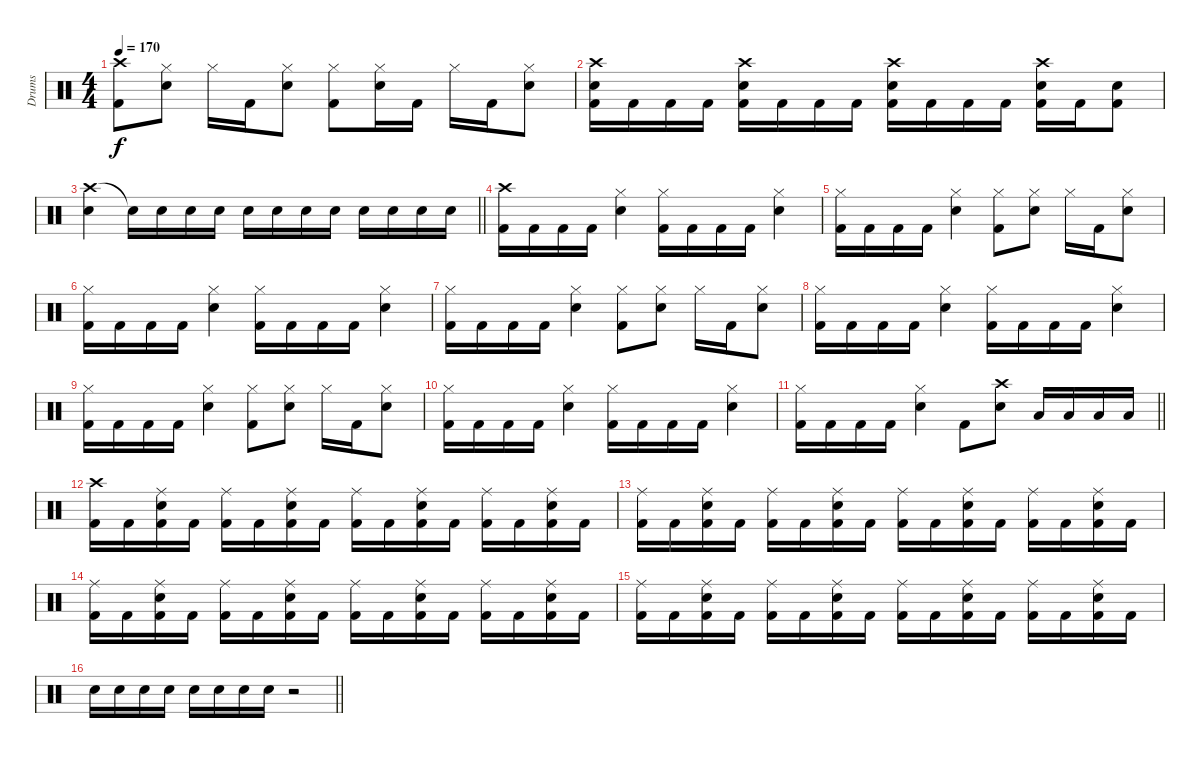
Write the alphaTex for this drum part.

\track ("Drums" "Drums") {instrument percussion}
\staff {score}
\articulation defaults
\ts (4 4)
\tempo 170
\clef neutral
\ks c
("Crash high (hit)" "Kick (hit) 2").8{dy f} ("Hi-Hat (closed)" "Snare (hit) 2").8 "Hi-Hat (closed)".16 "Kick (hit) 2".16 ("Hi-Hat (closed)" "Snare (hit) 2").8 ("Hi-Hat (closed)" "Kick (hit) 2").8 ("Hi-Hat (closed)" "Snare (hit) 2").16 "Kick (hit) 2".16 "Hi-Hat (closed)".16 "Kick (hit) 2".16 ("Hi-Hat (closed)" "Snare (hit) 2").8 |
("Crash high (hit)" "Snare (hit) 2" "Kick (hit) 2").16 "Kick (hit) 2".16 "Kick (hit) 2".16 "Kick (hit) 2".16 ("Crash high (hit)" "Snare (hit) 2" "Kick (hit) 2").16 "Kick (hit) 2".16 "Kick (hit) 2".16 "Kick (hit) 2".16 ("Crash high (hit)" "Snare (hit) 2" "Kick (hit) 2").16 "Kick (hit) 2".16 "Kick (hit) 2".16 "Kick (hit) 2".16 ("Crash high (hit)" "Snare (hit) 2" "Kick (hit) 2").16 "Kick (hit) 2".16 ("Snare (hit) 2" "Kick (hit) 2").8 |
\barLineRight lightlight
("Crash high (hit)" "Snare (hit) 2").4 "Snare (hit)"{t}.16 "Snare (hit) 2".16 "Snare (hit) 2".16 "Snare (hit) 2".16 "Snare (hit) 2".16 "Snare (hit) 2".16 "Snare (hit) 2".16 "Snare (hit) 2".16 "Snare (hit) 2".16 "Snare (hit) 2".16 "Snare (hit) 2".16 "Snare (hit) 2".16 |
("Crash high (hit)" "Kick (hit) 2").16 "Kick (hit) 2".16 "Kick (hit) 2".16 "Kick (hit) 2".16 ("Hi-Hat (closed)" "Snare (hit) 2").4 ("Hi-Hat (closed)" "Kick (hit) 2").16 "Kick (hit) 2".16 "Kick (hit) 2".16 "Kick (hit) 2".16 ("Hi-Hat (closed)" "Snare (hit) 2").4 |
("Hi-Hat (closed)" "Kick (hit) 2").16 "Kick (hit) 2".16 "Kick (hit) 2".16 "Kick (hit) 2".16 ("Hi-Hat (closed)" "Snare (hit) 2").4 ("Hi-Hat (closed)" "Kick (hit) 2").8 ("Hi-Hat (closed)" "Snare (hit) 2").8 "Hi-Hat (closed)".16 "Kick (hit) 2".16 ("Hi-Hat (closed)" "Snare (hit) 2").8 |
("Hi-Hat (closed)" "Kick (hit) 2").16 "Kick (hit) 2".16 "Kick (hit) 2".16 "Kick (hit) 2".16 ("Hi-Hat (closed)" "Snare (hit) 2").4 ("Hi-Hat (closed)" "Kick (hit) 2").16 "Kick (hit) 2".16 "Kick (hit) 2".16 "Kick (hit) 2".16 ("Hi-Hat (closed)" "Snare (hit) 2").4 |
("Hi-Hat (closed)" "Kick (hit) 2").16 "Kick (hit) 2".16 "Kick (hit) 2".16 "Kick (hit) 2".16 ("Hi-Hat (closed)" "Snare (hit) 2").4 ("Hi-Hat (closed)" "Kick (hit) 2").8 ("Hi-Hat (closed)" "Snare (hit) 2").8 "Hi-Hat (closed)".16 "Kick (hit) 2".16 ("Hi-Hat (closed)" "Snare (hit) 2").8 |
("Hi-Hat (closed)" "Kick (hit) 2").16 "Kick (hit) 2".16 "Kick (hit) 2".16 "Kick (hit) 2".16 ("Hi-Hat (closed)" "Snare (hit) 2").4 ("Hi-Hat (closed)" "Kick (hit) 2").16 "Kick (hit) 2".16 "Kick (hit) 2".16 "Kick (hit) 2".16 ("Hi-Hat (closed)" "Snare (hit) 2").4 |
("Hi-Hat (closed)" "Kick (hit) 2").16 "Kick (hit) 2".16 "Kick (hit) 2".16 "Kick (hit) 2".16 ("Hi-Hat (closed)" "Snare (hit) 2").4 ("Hi-Hat (closed)" "Kick (hit) 2").8 ("Hi-Hat (closed)" "Snare (hit) 2").8 "Hi-Hat (closed)".16 "Kick (hit) 2".16 ("Hi-Hat (closed)" "Snare (hit) 2").8 |
("Hi-Hat (closed)" "Kick (hit) 2").16 "Kick (hit) 2".16 "Kick (hit) 2".16 "Kick (hit) 2".16 ("Hi-Hat (closed)" "Snare (hit) 2").4 ("Hi-Hat (closed)" "Kick (hit) 2").16 "Kick (hit) 2".16 "Kick (hit) 2".16 "Kick (hit) 2".16 ("Hi-Hat (closed)" "Snare (hit) 2").4 |
\barLineRight lightlight
("Hi-Hat (closed)" "Kick (hit) 2").16 "Kick (hit) 2".16 "Kick (hit) 2".16 "Kick (hit) 2".16 ("Hi-Hat (closed)" "Snare (hit) 2").4 "Kick (hit) 2".8 ("Crash high (hit)" "Snare (hit) 2").8 "Low Tom (hit)".16 "Low Tom (hit)".16 "Low Floor Tom (hit)".16 "Low Floor Tom (hit)".16 |
("Crash high (hit)" "Kick (hit) 2").16 "Kick (hit) 2".16 ("Ride (middle)" "Snare (hit) 2" "Kick (hit) 2").16 "Kick (hit) 2".16 ("Ride (middle)" "Kick (hit) 2").16 "Kick (hit) 2".16 ("Ride (middle)" "Snare (hit) 2" "Kick (hit) 2").16 "Kick (hit) 2".16 ("Ride (middle)" "Kick (hit) 2").16 "Kick (hit) 2".16 ("Ride (middle)" "Snare (hit) 2" "Kick (hit) 2").16 "Kick (hit) 2".16 ("Ride (middle)" "Kick (hit) 2").16 "Kick (hit) 2".16 ("Ride (middle)" "Snare (hit) 2" "Kick (hit) 2").16 "Kick (hit) 2".16 |
("Ride (middle)" "Kick (hit) 2").16 "Kick (hit) 2".16 ("Ride (middle)" "Snare (hit) 2" "Kick (hit) 2").16 "Kick (hit) 2".16 ("Ride (middle)" "Kick (hit) 2").16 "Kick (hit) 2".16 ("Ride (middle)" "Snare (hit) 2" "Kick (hit) 2").16 "Kick (hit) 2".16 ("Ride (middle)" "Kick (hit) 2").16 "Kick (hit) 2".16 ("Ride (middle)" "Snare (hit) 2" "Kick (hit) 2").16 "Kick (hit) 2".16 ("Ride (middle)" "Kick (hit) 2").16 "Kick (hit) 2".16 ("Ride (middle)" "Snare (hit) 2" "Kick (hit) 2").16 "Kick (hit) 2".16 |
("Ride (middle)" "Kick (hit) 2").16 "Kick (hit) 2".16 ("Ride (middle)" "Snare (hit) 2" "Kick (hit) 2").16 "Kick (hit) 2".16 ("Ride (middle)" "Kick (hit) 2").16 "Kick (hit) 2".16 ("Ride (middle)" "Snare (hit) 2" "Kick (hit) 2").16 "Kick (hit) 2".16 ("Ride (middle)" "Kick (hit) 2").16 "Kick (hit) 2".16 ("Ride (middle)" "Snare (hit) 2" "Kick (hit) 2").16 "Kick (hit) 2".16 ("Ride (middle)" "Kick (hit) 2").16 "Kick (hit) 2".16 ("Ride (middle)" "Snare (hit) 2" "Kick (hit) 2").16 "Kick (hit) 2".16 |
("Ride (middle)" "Kick (hit) 2").16 "Kick (hit) 2".16 ("Ride (middle)" "Snare (hit) 2" "Kick (hit) 2").16 "Kick (hit) 2".16 ("Ride (middle)" "Kick (hit) 2").16 "Kick (hit) 2".16 ("Ride (middle)" "Snare (hit) 2" "Kick (hit) 2").16 "Kick (hit) 2".16 ("Ride (middle)" "Kick (hit) 2").16 "Kick (hit) 2".16 ("Ride (middle)" "Snare (hit) 2" "Kick (hit) 2").16 "Kick (hit) 2".16 ("Ride (middle)" "Kick (hit) 2").16 "Kick (hit) 2".16 ("Ride (middle)" "Snare (hit) 2" "Kick (hit) 2").16 "Kick (hit) 2".16 |
\barLineRight lightlight "Snare (hit) 2".16 "Snare (hit) 2".16 "Snare (hit) 2".16 "Snare (hit) 2".16 "Snare (hit) 2".16 "Snare (hit) 2".16 "Snare (hit) 2".16 "Snare (hit) 2".16
r.2
